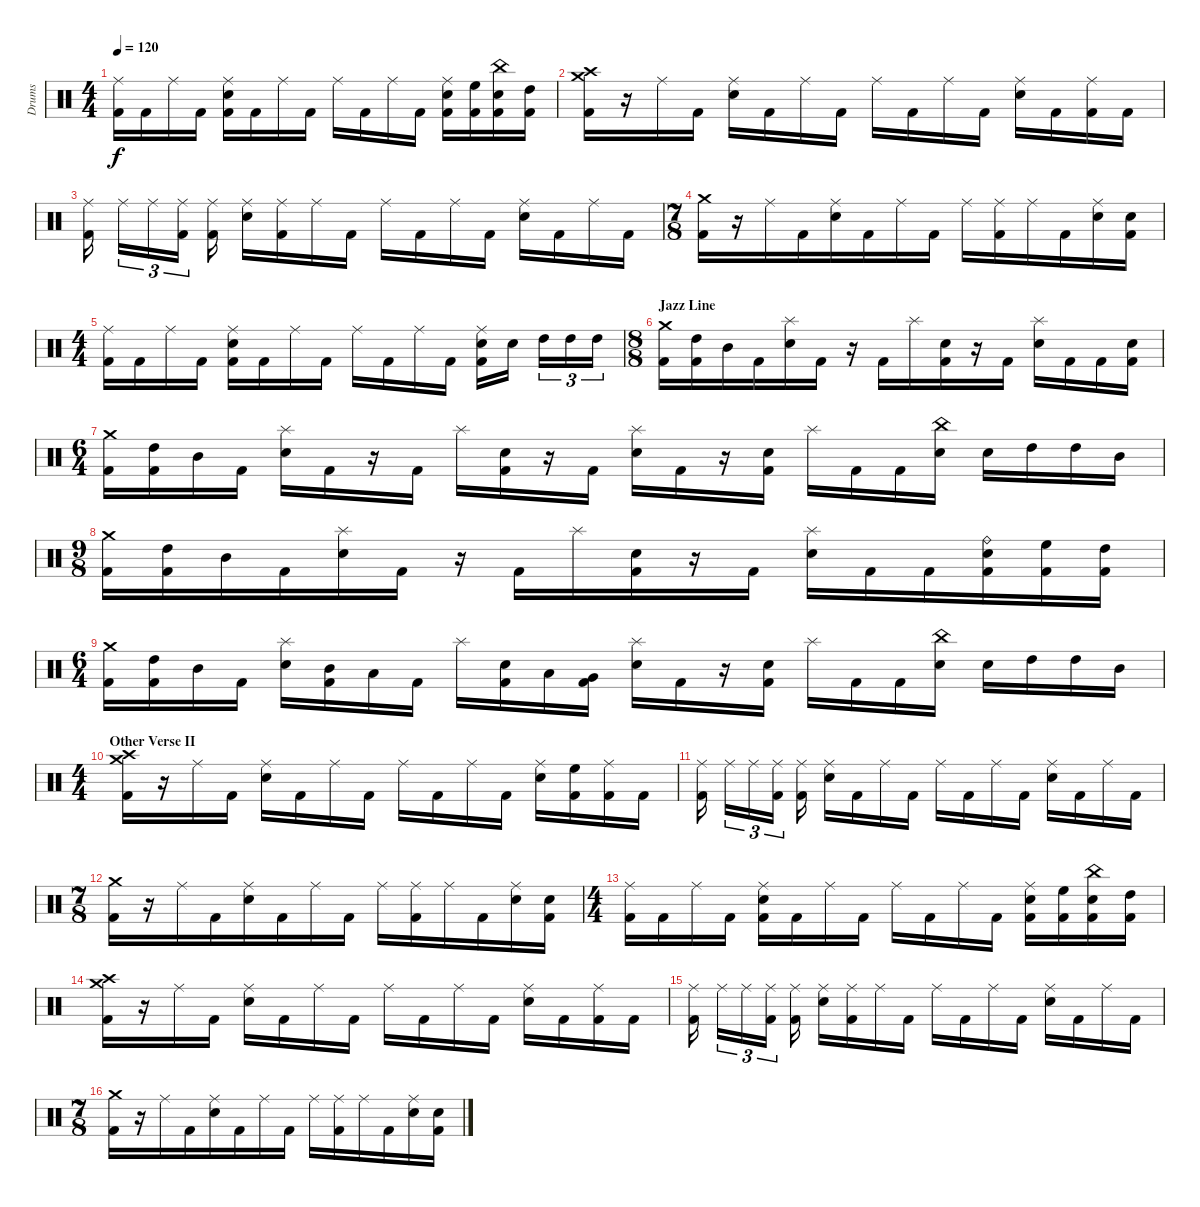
\track ("Drums" "Drums") {instrument percussion}
\staff {score}
\articulation defaults
\ts (4 4)
\tempo 120
\clef neutral
\ks c
("Ride (middle)" "Kick (hit) 2").16{dy f} "Kick (hit) 2".16 "Ride (middle)".16 "Kick (hit) 2".16 ("Ride (middle)" "Electric Snare (hit)" "Kick (hit) 2").16 "Kick (hit) 2".16 "Ride (middle)".16 "Kick (hit) 2".16 "Ride (middle)".16 "Kick (hit) 2".16 "Ride (middle)".16 "Kick (hit) 2".16 ("Ride (middle)" "Electric Snare (hit)" "Kick (hit) 2").16 ("High Floor Tom (hit)" "Kick (hit) 2").16 ("China (hit)" "Electric Snare (hit)" "Kick (hit) 2").16 ("High Tom (hit)" "Kick (hit) 2").16 |
("Crash medium (hit)" "Crash high (hit)" "Kick (hit) 2").16 r.16 "Ride (middle)".16 "Kick (hit) 2".16 ("Ride (middle)" "Electric Snare (hit)").16 "Kick (hit) 2".16 "Ride (middle)".16 "Kick (hit) 2".16 "Ride (middle)".16 "Kick (hit) 2".16 "Ride (middle)".16 "Kick (hit) 2".16 ("Ride (middle)" "Electric Snare (hit)").16 "Kick (hit) 2".16 ("Ride (middle)" "Kick (hit) 2").16 "Kick (hit) 2".16 |
("Ride (middle)" "Kick (hit) 2").16 "Ride (middle)".16{tu (3 2)} "Ride (middle)".16{tu (3 2)} ("Ride (middle)" "Kick (hit) 2").16{tu (3 2)} ("Ride (middle)" "Kick (hit) 2").16 ("Ride (middle)" "Electric Snare (hit)").16 ("Ride (middle)" "Kick (hit) 2").16 "Ride (middle)".16 "Kick (hit) 2".16 "Ride (middle)".16 "Kick (hit) 2".16 "Ride (middle)".16 "Kick (hit) 2".16 ("Ride (middle)" "Electric Snare (hit)").16 "Kick (hit) 2".16 "Ride (middle)".16 "Kick (hit) 2".16 |
\ts (7 8)
("Crash medium (hit)" "Kick (hit) 2").16 r.16 "Ride (middle)".16 "Kick (hit) 2".16 ("Ride (middle)" "Electric Snare (hit)").16 "Kick (hit) 2".16 "Ride (middle)".16 "Kick (hit) 2".16 "Ride (middle)".16 ("Ride (middle)" "Kick (hit) 2").16 "Ride (middle)".16 "Kick (hit) 2".16 ("Ride (middle)" "Electric Snare (hit)").16 ("Electric Snare (hit)" "Kick (hit) 2").16 |
\ts (4 4)
("Ride (middle)" "Kick (hit) 2").16 "Kick (hit) 2".16 "Ride (middle)".16 "Kick (hit) 2".16 ("Ride (middle)" "Electric Snare (hit)" "Kick (hit) 2").16 "Kick (hit) 2".16 "Ride (middle)".16 "Kick (hit) 2".16 "Ride (middle)".16 "Kick (hit) 2".16 "Ride (middle)".16 "Kick (hit) 2".16 ("Ride (middle)" "Electric Snare (hit)" "Kick (hit) 2").16 "Electric Snare (hit)".16 "High Tom (hit)".16{tu (3 2)} "High Tom (hit)".16{tu (3 2)} "High Tom (hit)".16{tu (3 2)} |
\ts (8 8)
\section ("" "Jazz Line")
("Crash medium (hit)" "Kick (hit) 2").16 ("High Tom (hit)" "Kick (hit) 2").16 "Mid Tom (hit)".16 "Kick (hit) 2".16 ("Splash (hit)" "Electric Snare (hit)").16 "Kick (hit) 2".16 r.16 "Kick (hit) 2".16 "Splash (hit)".16 ("Electric Snare (hit)" "Kick (hit) 2").16 r.16 "Kick (hit) 2".16 ("Splash (hit)" "Electric Snare (hit)").16 "Kick (hit) 2".16 "Kick (hit) 2".16 ("Electric Snare (hit)" "Kick (hit) 2").16 |
\ts (6 4)
("Crash medium (hit)" "Kick (hit) 2").16 ("High Tom (hit)" "Kick (hit) 2").16 "Mid Tom (hit)".16 "Kick (hit) 2".16 ("Splash (hit)" "Electric Snare (hit)").16 "Kick (hit) 2".16 r.16 "Kick (hit) 2".16 "Splash (hit)".16 ("Electric Snare (hit)" "Kick (hit) 2").16 r.16 "Kick (hit) 2".16 ("Splash (hit)" "Electric Snare (hit)").16 "Kick (hit) 2".16 r.16 ("Electric Snare (hit)" "Kick (hit) 2").16 "Splash (hit)".16 "Kick (hit) 2".16 "Kick (hit) 2".16 ("China (hit)" "Electric Snare (hit)").16 "Electric Snare (hit)".16 "High Tom (hit)".16 "High Tom (hit)".16 "Mid Tom (hit)".16 |
\ts (9 8)
("Crash medium (hit)" "Kick (hit) 2").16 ("High Tom (hit)" "Kick (hit) 2").16 "Mid Tom (hit)".16 "Kick (hit) 2".16 ("Splash (hit)" "Electric Snare (hit)").16 "Kick (hit) 2".16 r.16 "Kick (hit) 2".16 "Splash (hit)".16 ("Electric Snare (hit)" "Kick (hit) 2").16 r.16 "Kick (hit) 2".16 ("Splash (hit)" "Electric Snare (hit)").16 "Kick (hit) 2".16 "Kick (hit) 2".16 ("Ride (bell)" "Electric Snare (hit)" "Kick (hit) 2").16 ("High Floor Tom (hit)" "Kick (hit) 2").16 ("High Tom (hit)" "Kick (hit) 2").16 |
\ts (6 4)
("Crash medium (hit)" "Kick (hit) 2").16 ("High Tom (hit)" "Kick (hit) 2").16 "Mid Tom (hit)".16 "Kick (hit) 2".16 ("Splash (hit)" "Electric Snare (hit)").16 ("Mid Tom (hit)" "Kick (hit) 2").16 "Low Tom (hit)".16 "Kick (hit) 2".16 "Splash (hit)".16 ("Electric Snare (hit)" "Kick (hit) 2").16 "Low Tom (hit)".16 ("Very Low Tom (hit)" "Kick (hit) 2").16 ("Splash (hit)" "Electric Snare (hit)").16 "Kick (hit) 2".16 r.16 ("Electric Snare (hit)" "Kick (hit) 2").16 "Splash (hit)".16 "Kick (hit) 2".16 "Kick (hit) 2".16 ("China (hit)" "Electric Snare (hit)").16 "Electric Snare (hit)".16 "High Tom (hit)".16 "High Tom (hit)".16 "Mid Tom (hit)".16 |
\ts (4 4)
\section ("" "Other Verse II")
("Crash medium (hit)" "Crash high (hit)" "Kick (hit) 2").16 r.16 "Ride (middle)".16 "Kick (hit) 2".16 ("Ride (middle)" "Electric Snare (hit)").16 "Kick (hit) 2".16 "Ride (middle)".16 "Kick (hit) 2".16 "Ride (middle)".16 "Kick (hit) 2".16 "Ride (middle)".16 "Kick (hit) 2".16 ("Ride (middle)" "Electric Snare (hit)").16 ("High Floor Tom (hit)" "Kick (hit) 2").16 ("Ride (middle)" "Kick (hit) 2").16 "Kick (hit) 2".16 |
("Ride (middle)" "Kick (hit) 2").16 "Ride (middle)".16{tu (3 2)} "Ride (middle)".16{tu (3 2)} ("Ride (middle)" "Kick (hit) 2").16{tu (3 2)} ("Ride (middle)" "Kick (hit) 2").16 ("Ride (middle)" "Electric Snare (hit)").16 "Kick (hit) 2".16 "Ride (middle)".16 "Kick (hit) 2".16 "Ride (middle)".16 "Kick (hit) 2".16 "Ride (middle)".16 "Kick (hit) 2".16 ("Ride (middle)" "Electric Snare (hit)").16 "Kick (hit) 2".16 "Ride (middle)".16 "Kick (hit) 2".16 |
\ts (7 8)
("Crash medium (hit)" "Kick (hit) 2").16 r.16 "Ride (middle)".16 "Kick (hit) 2".16 ("Ride (middle)" "Electric Snare (hit)").16 "Kick (hit) 2".16 "Ride (middle)".16 "Kick (hit) 2".16 "Ride (middle)".16 ("Ride (middle)" "Kick (hit) 2").16 "Ride (middle)".16 "Kick (hit) 2".16 ("Ride (middle)" "Electric Snare (hit)").16 ("Electric Snare (hit)" "Kick (hit) 2").16 |
\ts (4 4)
("Ride (middle)" "Kick (hit) 2").16 "Kick (hit) 2".16 "Ride (middle)".16 "Kick (hit) 2".16 ("Ride (middle)" "Electric Snare (hit)" "Kick (hit) 2").16 "Kick (hit) 2".16 "Ride (middle)".16 "Kick (hit) 2".16 "Ride (middle)".16 "Kick (hit) 2".16 "Ride (middle)".16 "Kick (hit) 2".16 ("Ride (middle)" "Electric Snare (hit)" "Kick (hit) 2").16 ("High Floor Tom (hit)" "Kick (hit) 2").16 ("China (hit)" "Electric Snare (hit)" "Kick (hit) 2").16 ("High Tom (hit)" "Kick (hit) 2").16 |
("Crash medium (hit)" "Crash high (hit)" "Kick (hit) 2").16 r.16 "Ride (middle)".16 "Kick (hit) 2".16 ("Ride (middle)" "Electric Snare (hit)").16 "Kick (hit) 2".16 "Ride (middle)".16 "Kick (hit) 2".16 "Ride (middle)".16 "Kick (hit) 2".16 "Ride (middle)".16 "Kick (hit) 2".16 ("Ride (middle)" "Electric Snare (hit)").16 "Kick (hit) 2".16 ("Ride (middle)" "Kick (hit) 2").16 "Kick (hit) 2".16 |
("Ride (middle)" "Kick (hit) 2").16 "Ride (middle)".16{tu (3 2)} "Ride (middle)".16{tu (3 2)} ("Ride (middle)" "Kick (hit) 2").16{tu (3 2)} ("Ride (middle)" "Kick (hit) 2").16 ("Ride (middle)" "Electric Snare (hit)").16 ("Ride (middle)" "Kick (hit) 2").16 "Ride (middle)".16 "Kick (hit) 2".16 "Ride (middle)".16 "Kick (hit) 2".16 "Ride (middle)".16 "Kick (hit) 2".16 ("Ride (middle)" "Electric Snare (hit)").16 "Kick (hit) 2".16 "Ride (middle)".16 "Kick (hit) 2".16 |
\ts (7 8)
("Crash medium (hit)" "Kick (hit) 2").16 r.16 "Ride (middle)".16 "Kick (hit) 2".16 ("Ride (middle)" "Electric Snare (hit)").16 "Kick (hit) 2".16 "Ride (middle)".16 "Kick (hit) 2".16 "Ride (middle)".16 ("Ride (middle)" "Kick (hit) 2").16 "Ride (middle)".16 "Kick (hit) 2".16 ("Ride (middle)" "Electric Snare (hit)").16 ("Electric Snare (hit)" "Kick (hit) 2").16
